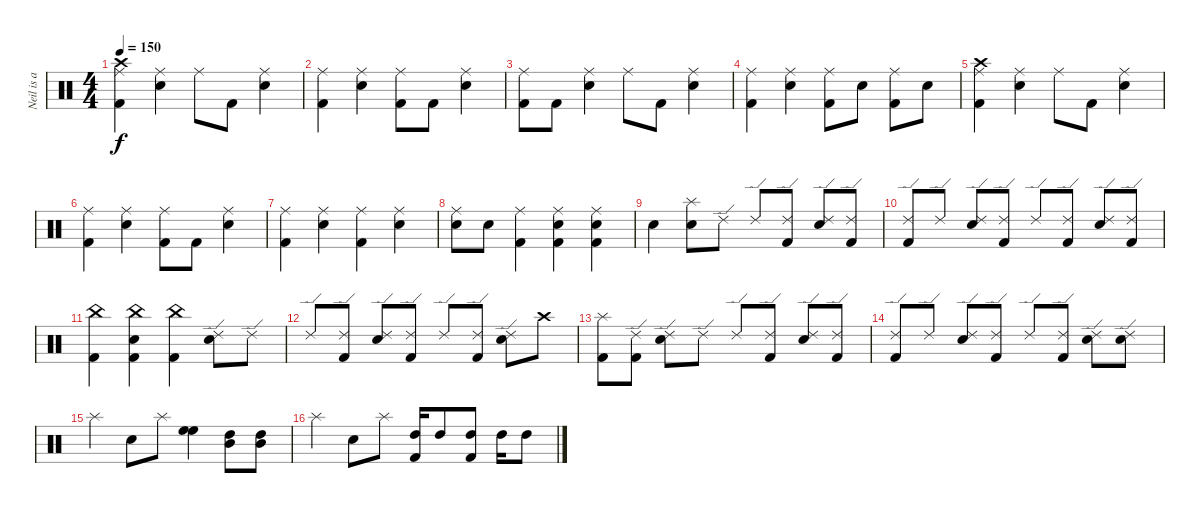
\track ("Neil is a Drum God!!!" "Neil is a ") {instrument percussion}
\staff {score}
\articulation defaults
\ts (4 4)
\tempo 150
\clef neutral
\ks c
("Crash high (hit)" "Ride (middle)" "Kick (hit) 2").4{dy f} ("Ride (middle)" "Snare (hit) 2").4 "Ride (middle)".8 "Kick (hit) 2".8 ("Ride (middle)" "Snare (hit) 2").4 |
("Ride (middle)" "Kick (hit) 2").4 ("Ride (middle)" "Snare (hit) 2").4 ("Ride (middle)" "Kick (hit) 2").8 "Kick (hit) 2".8 ("Ride (middle)" "Snare (hit) 2").4 |
("Ride (middle)" "Kick (hit) 2").8 "Kick (hit) 2".8 ("Ride (middle)" "Snare (hit) 2").4 "Ride (middle)".8 "Kick (hit) 2".8 ("Ride (middle)" "Snare (hit) 2").4 |
("Ride (middle)" "Kick (hit) 2").4 ("Ride (middle)" "Snare (hit) 2").4 ("Ride (middle)" "Kick (hit) 2").8 "Snare (hit) 2".8 ("Ride (middle)" "Kick (hit) 2").8 "Snare (hit) 2".8 |
("Crash high (hit)" "Ride (middle)" "Kick (hit) 2").4 ("Ride (middle)" "Snare (hit) 2").4 "Ride (middle)".8 "Kick (hit) 2".8 ("Ride (middle)" "Snare (hit) 2").4 |
("Ride (middle)" "Kick (hit) 2").4 ("Ride (middle)" "Snare (hit) 2").4 ("Ride (middle)" "Kick (hit) 2").8 "Kick (hit) 2".8 ("Ride (middle)" "Snare (hit) 2").4 |
("Ride (middle)" "Kick (hit) 2").4 ("Ride (middle)" "Snare (hit) 2").4 ("Ride (middle)" "Kick (hit) 2").4 ("Ride (middle)" "Snare (hit) 2").4 |
("Ride (middle)" "Snare (hit) 2").8 "Snare (hit) 2".8 ("Ride (middle)" "Kick (hit) 2").4 ("Ride (middle)" "Snare (hit) 2" "Kick (hit) 2").4 ("Ride (middle)" "Snare (hit) 2" "Kick (hit) 2").4 |
"Snare (hit) 2".4 ("Splash (hit)" "Snare (hit) 2").8 "Ride (edge) 2".8 "Ride (edge) 2".8 ("Ride (edge) 2" "Kick (hit) 2").8 ("Ride (edge) 2" "Snare (hit) 2").8 ("Ride (edge) 2" "Kick (hit) 2").8 |
("Ride (edge) 2" "Kick (hit) 2").8 "Ride (edge) 2".8 ("Ride (edge) 2" "Snare (hit) 2").8 ("Ride (edge) 2" "Kick (hit) 2").8 "Ride (edge) 2".8 ("Ride (edge) 2" "Kick (hit) 2").8 ("Ride (edge) 2" "Snare (hit) 2").8 ("Ride (edge) 2" "Kick (hit) 2").8 |
("China (hit)" "Kick (hit) 2").4 ("China (hit)" "Snare (hit) 2" "Kick (hit) 2").4 ("China (hit)" "Kick (hit) 2").4 ("Ride (edge) 2" "Snare (hit) 2").8 "Ride (edge) 2".8 |
"Ride (edge) 2".8 ("Ride (edge) 2" "Kick (hit) 2").8 ("Ride (edge) 2" "Snare (hit) 2").8 ("Ride (edge) 2" "Kick (hit) 2").8 "Ride (edge) 2".8 ("Ride (edge) 2" "Kick (hit) 2").8 ("Ride (edge) 2" "Snare (hit) 2").8 "Crash high (hit)".8 |
("Splash (hit)" "Kick (hit) 2").8 ("Ride (edge) 2" "Kick (hit) 2").8 ("Ride (edge) 2" "Snare (hit) 2").8 "Ride (edge) 2".8 "Ride (edge) 2".8 ("Ride (edge) 2" "Kick (hit) 2").8 ("Ride (edge) 2" "Snare (hit) 2").8 ("Ride (edge) 2" "Kick (hit) 2").8 |
("Ride (edge) 2" "Kick (hit) 2").8 "Ride (edge) 2".8 ("Ride (edge) 2" "Snare (hit) 2").8 ("Ride (edge) 2" "Kick (hit) 2").8 "Ride (edge) 2".8 ("Ride (edge) 2" "Kick (hit) 2").8 ("Ride (edge) 2" "Snare (hit) 2").8 ("Ride (edge) 2" "Snare (hit) 2").8 |
"Splash (hit)".4 "Snare (hit) 2".8 "Splash (hit)".8 ("High Floor Tom (hit)" "High Floor Tom (hit)").4 ("High Tom (hit)" "Mid Tom (hit)").8 ("Mid Tom (hit)" "High Tom (hit)").8 |
"Splash (hit)".4 "Snare (hit) 2".8 "Splash (hit)".8 ("High Tom (hit)" "Kick (hit) 2").16 "High Tom (hit)".8 ("High Tom (hit)" "Kick (hit) 2").8 "High Tom (hit)".16 "High Tom (hit)".8
